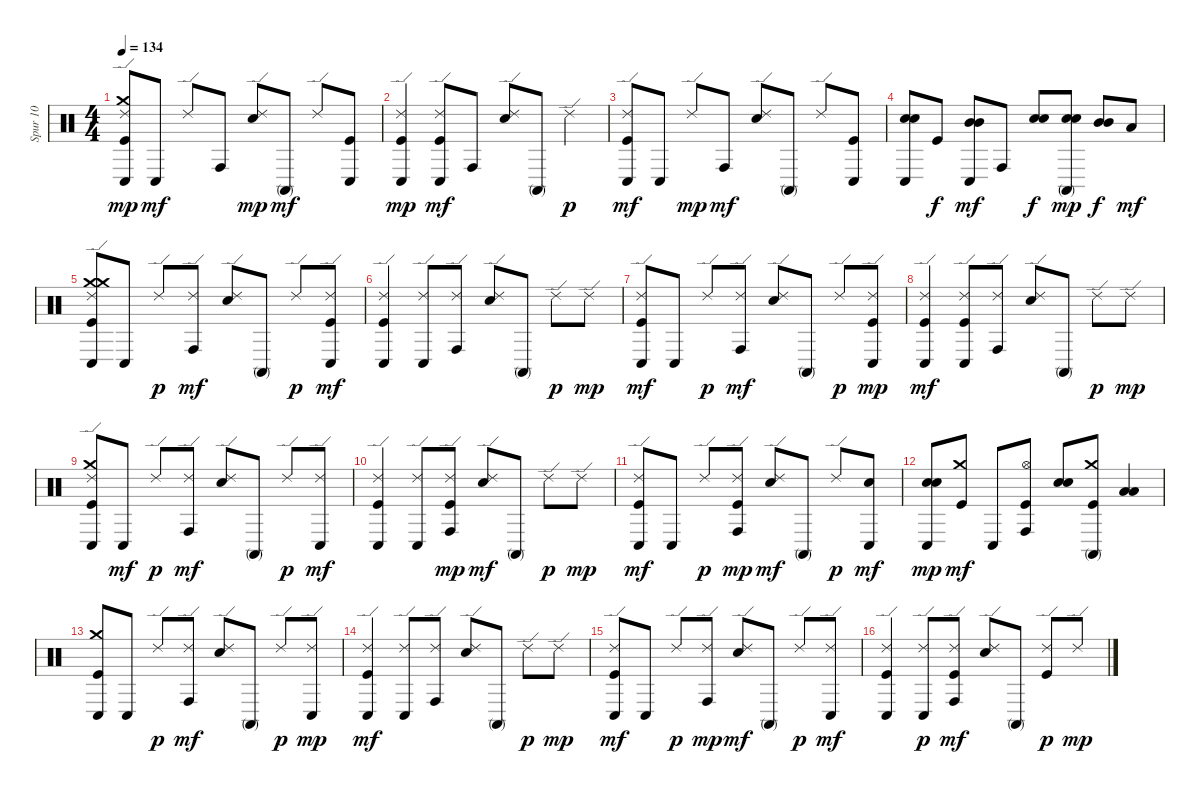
\track ("Spur 10" "Spur 10") {instrument percussion}
\staff {score}
\articulation defaults
\ts (4 4)
\tempo 134
\clef neutral
\ks c
("Kick (hit)" "Conga low (hit)" "Ride (edge) 2" "Crash medium (hit)").8{dy mp} "Conga low (hit)".8{dy mf} "Ride (edge) 2".8 "Conga high (hit)".8 ("Electric Snare (hit)" "Ride (edge) 2").8{dy mp} "Conga high (mute)".8{dy mf} "Ride (edge) 2".8 ("Conga low (hit)" "Kick (hit)").8 |
("Kick (hit)" "Conga low (hit)" "Ride (edge) 2").4{dy mp} ("Conga low (hit)" "Kick (hit)" "Ride (edge) 2").8{dy mf} "Conga high (hit)".8 ("Electric Snare (hit)" "Ride (edge) 2").8 "Conga high (mute)".8 "Ride (edge) 2".4{dy p} |
("Ride (edge) 2" "Conga low (hit)" "Kick (hit)").8{dy mf} "Conga low (hit)".8 "Ride (edge) 2".8{dy mp} "Conga high (hit)".8{dy mf} ("Electric Snare (hit)" "Ride (edge) 2").8 "Conga high (mute)".8 "Ride (edge) 2".8 ("Conga low (hit)" "Kick (hit)").8 |
("Conga low (hit)" "Electric Snare (hit)" "Electric Snare (hit)").8 "Kick (hit)".8{dy f} ("Conga low (hit)" "Mid Tom (hit)" "Mid Tom (hit)").8{dy mf} "Conga high (hit)".8 ("Electric Snare (hit)" "Electric Snare (hit)").8{dy f} ("Electric Snare (hit)" "Conga high (mute)" "Electric Snare (hit)").8{dy mp} ("Mid Tom (hit)" "Mid Tom (hit)").8{dy f} "Low Tom (hit)".8{dy mf} |
("Crash medium (hit)" "Ride (edge) 2" "Kick (hit)" "Conga low (hit)" "Crash medium (hit)").8 "Conga low (hit)".8 "Ride (edge) 2".8{dy p} ("Ride (edge) 2" "Conga high (hit)").8{dy mf} ("Ride (edge) 2" "Electric Snare (hit)").8 "Conga high (mute)".8 "Ride (edge) 2".8{dy p} ("Kick (hit)" "Ride (edge) 2" "Conga low (hit)").8{dy mf} |
("Conga low (hit)" "Kick (hit)" "Ride (edge) 2").4 ("Ride (edge) 2" "Conga low (hit)").8 ("Ride (edge) 2" "Conga high (hit)").8 ("Electric Snare (hit)" "Ride (edge) 2").8 "Conga high (mute)".8 "Ride (edge) 2".8{dy p} "Ride (edge) 2".8{dy mp} |
("Kick (hit)" "Ride (edge) 2" "Conga low (hit)").8{dy mf} "Conga low (hit)".8 "Ride (edge) 2".8{dy p} ("Ride (edge) 2" "Conga high (hit)").8{dy mf} ("Electric Snare (hit)" "Ride (edge) 2").8 "Conga high (mute)".8 "Ride (edge) 2".8{dy p} ("Conga low (hit)" "Kick (hit)" "Ride (edge) 2").8{dy mp} |
("Kick (hit)" "Ride (edge) 2" "Conga low (hit)").4{dy mf} ("Ride (edge) 2" "Kick (hit)" "Conga low (hit)").8 ("Ride (edge) 2" "Conga high (hit)").8 ("Electric Snare (hit)" "Ride (edge) 2").8 "Conga high (mute)".8 "Ride (edge) 2".8{dy p} "Ride (edge) 2".8{dy mp} |
("Ride (edge) 2" "Kick (hit)" "Conga low (hit)" "Crash medium (hit)").8 "Conga low (hit)".8{dy mf} "Ride (edge) 2".8{dy p} ("Ride (edge) 2" "Conga high (hit)").8{dy mf} ("Ride (edge) 2" "Electric Snare (hit)").8 "Conga high (mute)".8 "Ride (edge) 2".8{dy p} ("Ride (edge) 2" "Conga low (hit)").8{dy mf} |
("Conga low (hit)" "Ride (edge) 2" "Kick (hit)").4 ("Ride (edge) 2" "Conga low (hit)").8 ("Conga high (hit)" "Kick (hit)" "Ride (edge) 2").8{dy mp} ("Ride (edge) 2" "Electric Snare (hit)").8{dy mf} "Conga high (mute)".8 "Ride (edge) 2".8{dy p} "Ride (edge) 2".8{dy mp} |
("Conga low (hit)" "Kick (hit)" "Ride (edge) 2").8{dy mf} "Conga low (hit)".8 "Ride (edge) 2".8{dy p} ("Conga high (hit)" "Kick (hit)" "Ride (edge) 2").8{dy mp} ("Ride (edge) 2" "Electric Snare (hit)").8{dy mf} "Conga high (mute)".8 "Ride (edge) 2".8{dy p} ("Electric Snare (hit)" "Conga low (hit)").8{dy mf} |
("Electric Snare (hit)" "Conga low (hit)" "Electric Snare (hit)").8{dy mp} ("Kick (hit)" "Crash medium (hit)").8{dy mf} "Conga low (hit)".8 ("Conga high (hit)" "Hi-Hat (open)" "Kick (hit)").8 ("Electric Snare (hit)" "Electric Snare (hit)").8 ("Kick (hit)" "Conga high (mute)" "Crash medium (hit)").8 ("Low Tom (hit)" "Low Tom (hit)").4 |
("Kick (hit)" "Crash medium (hit)" "Conga low (hit)").8 "Conga low (hit)".8 "Ride (edge) 2".8{dy p} ("Ride (edge) 2" "Conga high (hit)").8{dy mf} ("Electric Snare (hit)" "Ride (edge) 2").8 "Conga high (mute)".8 "Ride (edge) 2".8{dy p} ("Conga low (hit)" "Ride (edge) 2").8{dy mp} |
("Conga low (hit)" "Kick (hit)" "Ride (edge) 2").4{dy mf} ("Ride (edge) 2" "Conga low (hit)").8 ("Ride (edge) 2" "Conga high (hit)").8 ("Electric Snare (hit)" "Ride (edge) 2").8 "Conga high (mute)".8 "Ride (edge) 2".8{dy p} "Ride (edge) 2".8{dy mp} |
("Ride (edge) 2" "Kick (hit)" "Conga low (hit)").8{dy mf} "Conga low (hit)".8 "Ride (edge) 2".8{dy p} ("Conga high (hit)" "Ride (edge) 2").8{dy mp} ("Ride (edge) 2" "Electric Snare (hit)").8{dy mf} "Conga high (mute)".8 "Ride (edge) 2".8{dy p} ("Ride (edge) 2" "Conga low (hit)").8{dy mf} |
("Kick (hit)" "Conga low (hit)" "Ride (edge) 2").4 ("Conga low (hit)" "Ride (edge) 2").8{dy p} ("Ride (edge) 2" "Kick (hit)" "Conga high (hit)").8{dy mf} ("Ride (edge) 2" "Electric Snare (hit)").8 "Conga high (mute)".8 ("Ride (edge) 2" "Kick (hit)").8{dy p} "Ride (edge) 2".8{dy mp}
